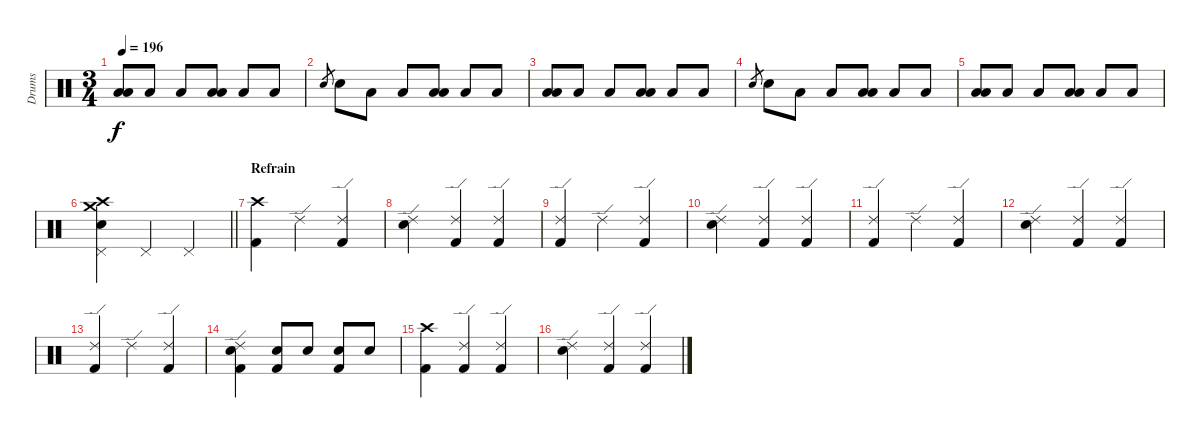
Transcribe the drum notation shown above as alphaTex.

\track ("Drums" "Drums") {instrument percussion}
\staff {score}
\articulation defaults
\ts (3 4)
\tempo 196
\clef neutral
\ks c
("Low Tom (hit)" "Low Floor Tom (hit)").8{dy f} "Low Floor Tom (hit)".8 "Low Floor Tom (hit)".8 ("Low Tom (hit)" "Low Floor Tom (hit)").8 "Low Floor Tom (hit)".8 "Low Floor Tom (hit)".8 |
"Electric Snare (hit)".8{gr} "Electric Snare (hit)".8 "Low Floor Tom (hit)".8 "Low Floor Tom (hit)".8 ("Low Tom (hit)" "Low Floor Tom (hit)").8 "Low Floor Tom (hit)".8 "Low Floor Tom (hit)".8 |
("Low Tom (hit)" "Low Floor Tom (hit)").8 "Low Floor Tom (hit)".8 "Low Floor Tom (hit)".8 ("Low Tom (hit)" "Low Floor Tom (hit)").8 "Low Floor Tom (hit)".8 "Low Floor Tom (hit)".8 |
"Electric Snare (hit)".8{gr} "Electric Snare (hit)".8 "Low Floor Tom (hit)".8 "Low Floor Tom (hit)".8 ("Low Tom (hit)" "Low Floor Tom (hit)").8 "Low Floor Tom (hit)".8 "Low Floor Tom (hit)".8 |
("Low Tom (hit)" "Low Floor Tom (hit)").8 "Low Floor Tom (hit)".8 "Low Floor Tom (hit)".8 ("Low Tom (hit)" "Low Floor Tom (hit)").8 "Low Floor Tom (hit)".8 "Low Floor Tom (hit)".8 |
\barLineRight lightlight
("Pedal Hi-Hat (hit)" "Crash medium (hit)" "Crash high (hit)" "Electric Snare (hit)").4 "Pedal Hi-Hat (hit)".4 "Pedal Hi-Hat (hit)".4 |
\section ("" "Refrain")
("Crash high (hit)" "Kick (hit) 2").4 "Ride (edge) 2".4 ("Ride (edge) 2" "Kick (hit) 2").4 |
("Ride (edge) 2" "Electric Snare (hit)").4 ("Ride (edge) 2" "Kick (hit) 2").4 ("Ride (edge) 2" "Kick (hit) 2").4 |
("Ride (edge) 2" "Kick (hit) 2").4 "Ride (edge) 2".4 ("Ride (edge) 2" "Kick (hit) 2").4 |
("Ride (edge) 2" "Electric Snare (hit)").4 ("Ride (edge) 2" "Kick (hit) 2").4 ("Ride (edge) 2" "Kick (hit) 2").4 |
("Ride (edge) 2" "Kick (hit) 2").4 "Ride (edge) 2".4 ("Ride (edge) 2" "Kick (hit) 2").4 |
("Ride (edge) 2" "Electric Snare (hit)").4 ("Ride (edge) 2" "Kick (hit) 2").4 ("Ride (edge) 2" "Kick (hit) 2").4 |
("Ride (edge) 2" "Kick (hit) 2").4 "Ride (edge) 2".4 ("Ride (edge) 2" "Kick (hit) 2").4 |
("Ride (edge) 2" "Electric Snare (hit)" "Kick (hit) 2").4 ("Electric Snare (hit)" "Kick (hit) 2").8 "Electric Snare (hit)".8 ("Electric Snare (hit)" "Kick (hit) 2").8 "Electric Snare (hit)".8 |
("Crash high (hit)" "Kick (hit) 2").4 ("Ride (edge) 2" "Kick (hit) 2").4 ("Ride (edge) 2" "Kick (hit) 2").4 |
("Ride (edge) 2" "Electric Snare (hit)").4 ("Ride (edge) 2" "Kick (hit) 2").4 ("Ride (edge) 2" "Kick (hit) 2").4
